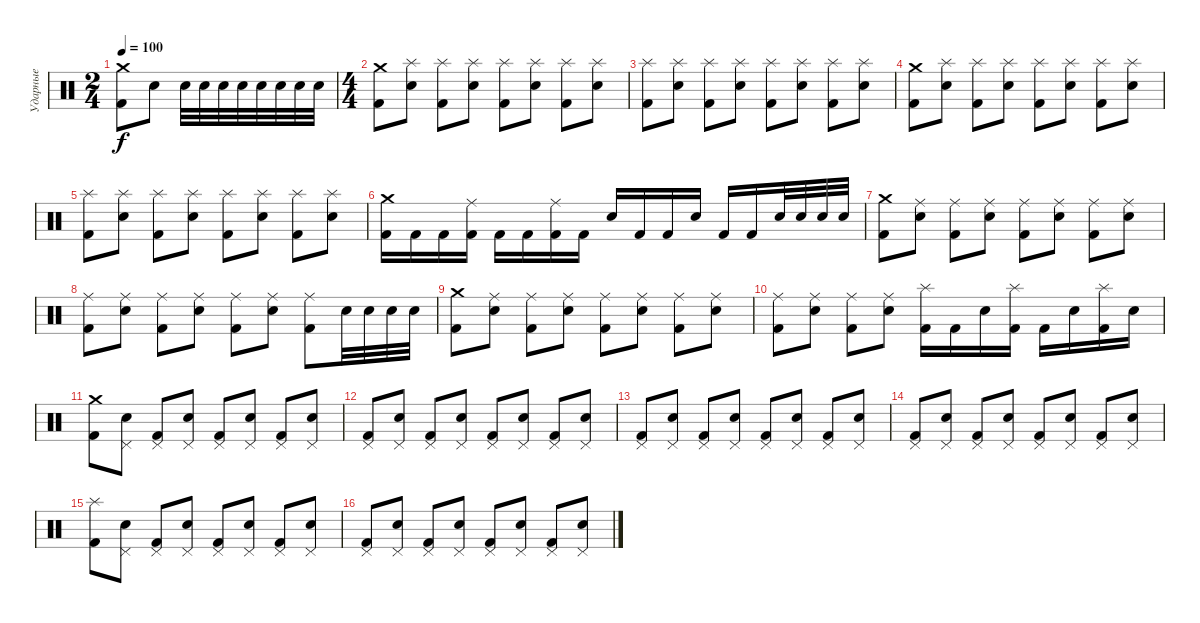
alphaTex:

\track ("Ударные" "Ударные") {instrument percussion}
\staff {score}
\articulation defaults
\ts (2 4)
\tempo 100
\clef neutral
\ks c
("Crash medium (hit)" "Kick (hit) 2").8{dy f} "Electric Snare (hit)".8 "Electric Snare (hit)".32 "Electric Snare (hit)".32 "Electric Snare (hit)".32 "Electric Snare (hit)".32 "Electric Snare (hit)".32 "Electric Snare (hit)".32 "Electric Snare (hit)".32 "Electric Snare (hit)".32 |
\ts (4 4)
("Crash medium (hit)" "Kick (hit) 2").8 ("Splash (hit)" "Electric Snare (hit)").8 ("Splash (hit)" "Kick (hit) 2").8 ("Splash (hit)" "Electric Snare (hit)").8 ("Splash (hit)" "Kick (hit) 2").8 ("Splash (hit)" "Electric Snare (hit)").8 ("Splash (hit)" "Kick (hit) 2").8 ("Splash (hit)" "Electric Snare (hit)").8 |
("Splash (hit)" "Kick (hit) 2").8 ("Splash (hit)" "Electric Snare (hit)").8 ("Splash (hit)" "Kick (hit) 2").8 ("Splash (hit)" "Electric Snare (hit)").8 ("Splash (hit)" "Kick (hit) 2").8 ("Splash (hit)" "Electric Snare (hit)").8 ("Splash (hit)" "Kick (hit) 2").8 ("Splash (hit)" "Electric Snare (hit)").8 |
("Crash medium (hit)" "Kick (hit) 2").8 ("Splash (hit)" "Electric Snare (hit)").8 ("Splash (hit)" "Kick (hit) 2").8 ("Splash (hit)" "Electric Snare (hit)").8 ("Splash (hit)" "Kick (hit) 2").8 ("Splash (hit)" "Electric Snare (hit)").8 ("Splash (hit)" "Kick (hit) 2").8 ("Splash (hit)" "Electric Snare (hit)").8 |
("Splash (hit)" "Kick (hit) 2").8 ("Splash (hit)" "Electric Snare (hit)").8 ("Splash (hit)" "Kick (hit) 2").8 ("Splash (hit)" "Electric Snare (hit)").8 ("Splash (hit)" "Kick (hit) 2").8 ("Splash (hit)" "Electric Snare (hit)").8 ("Splash (hit)" "Kick (hit) 2").8 ("Splash (hit)" "Electric Snare (hit)").8 |
("Crash medium (hit)" "Kick (hit) 2").16 "Kick (hit) 2".16 "Kick (hit) 2".16 ("Ride (middle)" "Kick (hit) 2").16 "Kick (hit) 2".16 "Kick (hit) 2".16 ("Ride (middle)" "Kick (hit) 2").16 "Kick (hit) 2".16 "Electric Snare (hit)".16 "Kick (hit) 2".16 "Kick (hit) 2".16 "Electric Snare (hit)".16 "Kick (hit) 2".16 "Kick (hit) 2".16 "Electric Snare (hit)".32 "Electric Snare (hit)".32 "Electric Snare (hit)".32 "Electric Snare (hit)".32 |
("Crash medium (hit)" "Kick (hit) 2").8 ("Ride (middle)" "Electric Snare (hit)").8 ("Ride (middle)" "Kick (hit) 2").8 ("Ride (middle)" "Electric Snare (hit)").8 ("Ride (middle)" "Kick (hit) 2").8 ("Ride (middle)" "Electric Snare (hit)").8 ("Ride (middle)" "Kick (hit) 2").8 ("Ride (middle)" "Electric Snare (hit)").8 |
("Ride (middle)" "Kick (hit) 2").8 ("Ride (middle)" "Electric Snare (hit)").8 ("Ride (middle)" "Kick (hit) 2").8 ("Ride (middle)" "Electric Snare (hit)").8 ("Ride (middle)" "Kick (hit) 2").8 ("Ride (middle)" "Electric Snare (hit)").8 ("Ride (middle)" "Kick (hit) 2").8 "Electric Snare (hit)".32 "Electric Snare (hit)".32 "Electric Snare (hit)".32 "Electric Snare (hit)".32 |
("Crash medium (hit)" "Kick (hit) 2").8 ("Ride (middle)" "Electric Snare (hit)").8 ("Ride (middle)" "Kick (hit) 2").8 ("Ride (middle)" "Electric Snare (hit)").8 ("Ride (middle)" "Kick (hit) 2").8 ("Ride (middle)" "Electric Snare (hit)").8 ("Ride (middle)" "Kick (hit) 2").8 ("Ride (middle)" "Electric Snare (hit)").8 |
("Ride (middle)" "Kick (hit) 2").8 ("Ride (middle)" "Electric Snare (hit)").8 ("Ride (middle)" "Kick (hit) 2").8 ("Ride (middle)" "Electric Snare (hit)").8 ("Splash (hit)" "Kick (hit) 2").16 "Kick (hit) 2".16 "Electric Snare (hit)".16 ("Splash (hit)" "Kick (hit) 2").16 "Kick (hit) 2".16 "Electric Snare (hit)".16 ("Splash (hit)" "Kick (hit) 2").16 "Electric Snare (hit)".16 |
("Crash medium (hit)" "Kick (hit) 2").8 ("Pedal Hi-Hat (hit)" "Electric Snare (hit)").8 ("Pedal Hi-Hat (hit)" "Kick (hit) 2").8 ("Pedal Hi-Hat (hit)" "Electric Snare (hit)").8 ("Pedal Hi-Hat (hit)" "Kick (hit) 2").8 ("Pedal Hi-Hat (hit)" "Electric Snare (hit)").8 ("Pedal Hi-Hat (hit)" "Kick (hit) 2").8 ("Pedal Hi-Hat (hit)" "Electric Snare (hit)").8 |
("Pedal Hi-Hat (hit)" "Kick (hit) 2").8 ("Pedal Hi-Hat (hit)" "Electric Snare (hit)").8 ("Pedal Hi-Hat (hit)" "Kick (hit) 2").8 ("Pedal Hi-Hat (hit)" "Electric Snare (hit)").8 ("Pedal Hi-Hat (hit)" "Kick (hit) 2").8 ("Pedal Hi-Hat (hit)" "Electric Snare (hit)").8 ("Pedal Hi-Hat (hit)" "Kick (hit) 2").8 ("Pedal Hi-Hat (hit)" "Electric Snare (hit)").8 |
("Pedal Hi-Hat (hit)" "Kick (hit) 2").8 ("Pedal Hi-Hat (hit)" "Electric Snare (hit)").8 ("Pedal Hi-Hat (hit)" "Kick (hit) 2").8 ("Pedal Hi-Hat (hit)" "Electric Snare (hit)").8 ("Pedal Hi-Hat (hit)" "Kick (hit) 2").8 ("Pedal Hi-Hat (hit)" "Electric Snare (hit)").8 ("Pedal Hi-Hat (hit)" "Kick (hit) 2").8 ("Pedal Hi-Hat (hit)" "Electric Snare (hit)").8 |
("Pedal Hi-Hat (hit)" "Kick (hit) 2").8 ("Pedal Hi-Hat (hit)" "Electric Snare (hit)").8 ("Pedal Hi-Hat (hit)" "Kick (hit) 2").8 ("Pedal Hi-Hat (hit)" "Electric Snare (hit)").8 ("Pedal Hi-Hat (hit)" "Kick (hit) 2").8 ("Pedal Hi-Hat (hit)" "Electric Snare (hit)").8 ("Pedal Hi-Hat (hit)" "Kick (hit) 2").8 ("Pedal Hi-Hat (hit)" "Electric Snare (hit)").8 |
("Splash (hit)" "Kick (hit) 2").8 ("Pedal Hi-Hat (hit)" "Electric Snare (hit)").8 ("Pedal Hi-Hat (hit)" "Kick (hit) 2").8 ("Pedal Hi-Hat (hit)" "Electric Snare (hit)").8 ("Pedal Hi-Hat (hit)" "Kick (hit) 2").8 ("Pedal Hi-Hat (hit)" "Electric Snare (hit)").8 ("Pedal Hi-Hat (hit)" "Kick (hit) 2").8 ("Pedal Hi-Hat (hit)" "Electric Snare (hit)").8 |
("Pedal Hi-Hat (hit)" "Kick (hit) 2").8 ("Pedal Hi-Hat (hit)" "Electric Snare (hit)").8 ("Pedal Hi-Hat (hit)" "Kick (hit) 2").8 ("Pedal Hi-Hat (hit)" "Electric Snare (hit)").8 ("Pedal Hi-Hat (hit)" "Kick (hit) 2").8 ("Pedal Hi-Hat (hit)" "Electric Snare (hit)").8 ("Pedal Hi-Hat (hit)" "Kick (hit) 2").8 ("Pedal Hi-Hat (hit)" "Electric Snare (hit)").8
